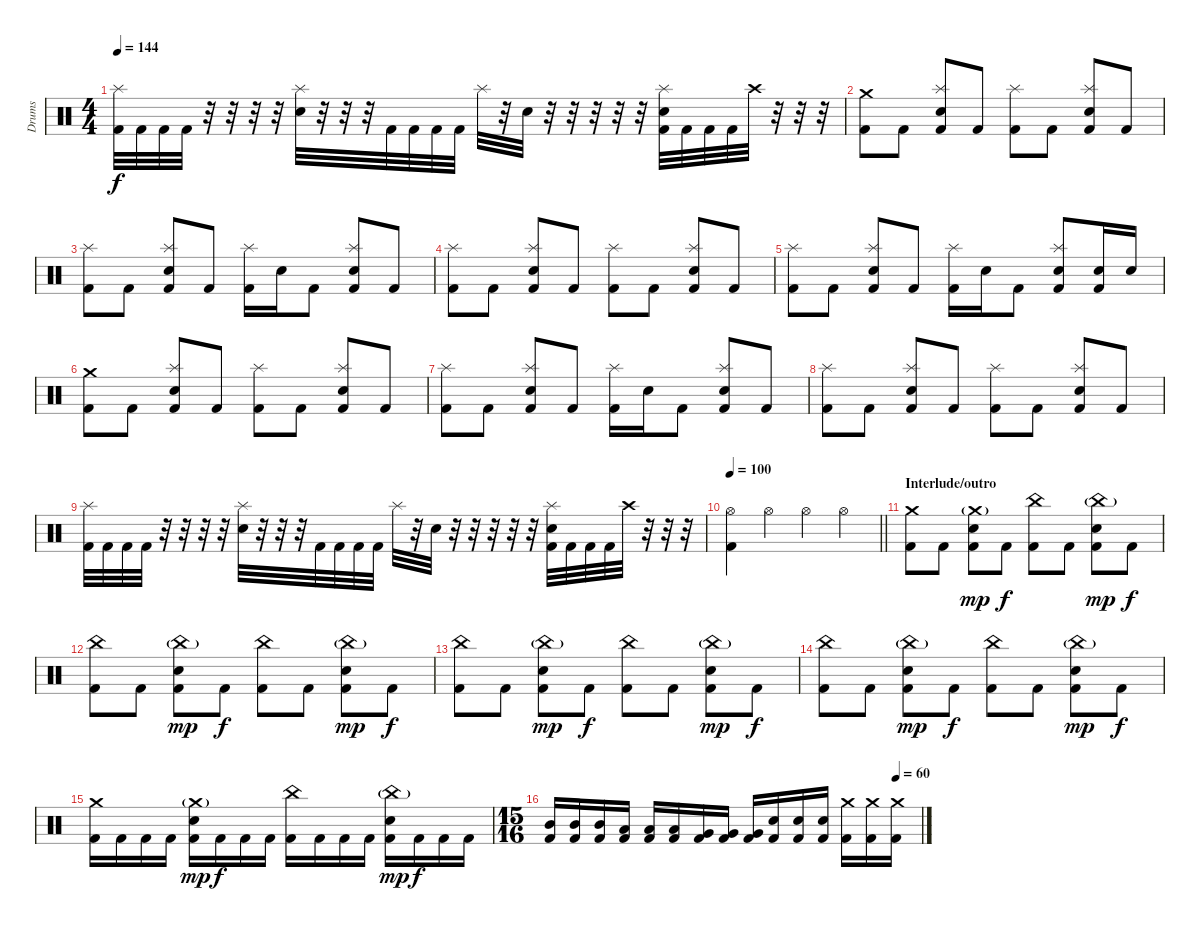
\track ("Drums" "Drums") {instrument percussion}
\staff {score}
\articulation defaults
\ts (4 4)
\tempo 144
\clef neutral
\ks c
("Kick (hit) 2" "Splash (hit)").32{dy f} "Kick (hit) 2".32 "Kick (hit) 2".32 "Kick (hit) 2".32 r.32 r.32 r.32 r.32 ("Snare (hit) 2" "Splash (hit)").32 r.32 r.32 r.32 "Kick (hit) 2".32 "Kick (hit) 2".32 "Kick (hit) 2".32 "Kick (hit) 2".32 "Splash (hit)".32 r.32 "Snare (hit) 2".32 r.32 r.32 r.32 r.32 r.32 ("Kick (hit) 2" "Snare (hit) 2" "Splash (hit)").32 "Kick (hit) 2".32 "Kick (hit) 2".32 "Kick (hit) 2".32 "Crash high (hit)".32 r.32 r.32 r.32 |
("Kick (hit) 2" "Crash medium (hit)").8 "Kick (hit) 2".8 ("Kick (hit) 2" "Snare (hit) 2" "Splash (hit)").8 "Kick (hit) 2".8 ("Kick (hit) 2" "Splash (hit)").8 "Kick (hit) 2".8 ("Kick (hit) 2" "Snare (hit) 2" "Splash (hit)").8 "Kick (hit) 2".8 |
("Kick (hit) 2" "Splash (hit)").8 "Kick (hit) 2".8 ("Kick (hit) 2" "Snare (hit) 2" "Splash (hit)").8 "Kick (hit) 2".8 ("Kick (hit) 2" "Splash (hit)").16 "Snare (hit) 2".16 "Kick (hit) 2".8 ("Kick (hit) 2" "Snare (hit) 2" "Splash (hit)").8 "Kick (hit) 2".8 |
("Kick (hit) 2" "Splash (hit)").8 "Kick (hit) 2".8 ("Kick (hit) 2" "Snare (hit) 2" "Splash (hit)").8 "Kick (hit) 2".8 ("Kick (hit) 2" "Splash (hit)").8 "Kick (hit) 2".8 ("Kick (hit) 2" "Snare (hit) 2" "Splash (hit)").8 "Kick (hit) 2".8 |
("Kick (hit) 2" "Splash (hit)").8 "Kick (hit) 2".8 ("Kick (hit) 2" "Snare (hit) 2" "Splash (hit)").8 "Kick (hit) 2".8 ("Kick (hit) 2" "Splash (hit)").16 "Snare (hit) 2".16 "Kick (hit) 2".8 ("Kick (hit) 2" "Snare (hit) 2" "Splash (hit)").8 ("Kick (hit) 2" "Snare (hit) 2").16 "Snare (hit) 2".16 |
("Kick (hit) 2" "Crash medium (hit)").8 "Kick (hit) 2".8 ("Kick (hit) 2" "Snare (hit) 2" "Splash (hit)").8 "Kick (hit) 2".8 ("Kick (hit) 2" "Splash (hit)").8 "Kick (hit) 2".8 ("Kick (hit) 2" "Snare (hit) 2" "Splash (hit)").8 "Kick (hit) 2".8 |
("Kick (hit) 2" "Splash (hit)").8 "Kick (hit) 2".8 ("Kick (hit) 2" "Snare (hit) 2" "Splash (hit)").8 "Kick (hit) 2".8 ("Kick (hit) 2" "Splash (hit)").16 "Snare (hit) 2".16 "Kick (hit) 2".8 ("Kick (hit) 2" "Snare (hit) 2" "Splash (hit)").8 "Kick (hit) 2".8 |
("Kick (hit) 2" "Splash (hit)").8 "Kick (hit) 2".8 ("Kick (hit) 2" "Snare (hit) 2" "Splash (hit)").8 "Kick (hit) 2".8 ("Kick (hit) 2" "Splash (hit)").8 "Kick (hit) 2".8 ("Kick (hit) 2" "Snare (hit) 2" "Splash (hit)").8 "Kick (hit) 2".8 |
("Kick (hit) 2" "Splash (hit)").32 "Kick (hit) 2".32 "Kick (hit) 2".32 "Kick (hit) 2".32 r.32 r.32 r.32 r.32 ("Snare (hit) 2" "Splash (hit)").32 r.32 r.32 r.32 "Kick (hit) 2".32 "Kick (hit) 2".32 "Kick (hit) 2".32 "Kick (hit) 2".32 "Splash (hit)".32 r.32 "Snare (hit) 2".32 r.32 r.32 r.32 r.32 r.32 ("Kick (hit) 2" "Snare (hit) 2" "Splash (hit)").32 "Kick (hit) 2".32 "Kick (hit) 2".32 "Kick (hit) 2".32 "Crash high (hit)".32 r.32 r.32 r.32 |
\tempo 100
\barLineRight lightlight
("Kick (hit) 2" "Hi-Hat (open)").4 "Hi-Hat (open)".4 "Hi-Hat (open)".4 "Hi-Hat (open)".4 |
\section ("" "Interlude/outro")
("Kick (hit) 2" "Crash medium (hit)").8 "Kick (hit) 2".8 ("Kick (hit) 2" "Snare (hit) 2" "Crash medium (hit)"{g}).8{dy mp} "Kick (hit) 2".8{dy f} ("Kick (hit) 2" "China (hit)").8 "Kick (hit) 2".8 ("Kick (hit) 2" "Snare (hit) 2" "China (hit)"{g}).8{dy mp} "Kick (hit) 2".8{dy f} |
("Kick (hit) 2" "China (hit)").8 "Kick (hit) 2".8 ("Kick (hit) 2" "Snare (hit) 2" "China (hit)"{g}).8{dy mp} "Kick (hit) 2".8{dy f} ("Kick (hit) 2" "China (hit)").8 "Kick (hit) 2".8 ("Kick (hit) 2" "Snare (hit) 2" "China (hit)"{g}).8{dy mp} "Kick (hit) 2".8{dy f} |
("Kick (hit) 2" "China (hit)").8 "Kick (hit) 2".8 ("Kick (hit) 2" "Snare (hit) 2" "China (hit)"{g}).8{dy mp} "Kick (hit) 2".8{dy f} ("Kick (hit) 2" "China (hit)").8 "Kick (hit) 2".8 ("Kick (hit) 2" "Snare (hit) 2" "China (hit)"{g}).8{dy mp} "Kick (hit) 2".8{dy f} |
("Kick (hit) 2" "China (hit)").8 "Kick (hit) 2".8 ("Kick (hit) 2" "Snare (hit) 2" "China (hit)"{g}).8{dy mp} "Kick (hit) 2".8{dy f} ("Kick (hit) 2" "China (hit)").8 "Kick (hit) 2".8 ("Kick (hit) 2" "Snare (hit) 2" "China (hit)"{g}).8{dy mp} "Kick (hit) 2".8{dy f} |
("Kick (hit) 2" "Crash medium (hit)").16 "Kick (hit) 2".16 "Kick (hit) 2".16 "Kick (hit) 2".16 ("Kick (hit) 2" "Snare (hit) 2" "Crash medium (hit)"{g}).16{dy mp} "Kick (hit) 2".16{dy f} "Kick (hit) 2".16 "Kick (hit) 2".16 ("Kick (hit) 2" "China (hit)").16 "Kick (hit) 2".16 "Kick (hit) 2".16 "Kick (hit) 2".16 ("Kick (hit) 2" "Snare (hit) 2" "China (hit)"{g}).16{dy mp} "Kick (hit) 2".16{dy f} "Kick (hit) 2".16 "Kick (hit) 2".16 |
\ts (15 16)
\tempo (60 0.9333333333333333)
("Kick (hit) 2" "Mid Tom (hit)").16 ("Kick (hit) 2" "Mid Tom (hit)").16 ("Kick (hit) 2" "Mid Tom (hit)").16 ("Kick (hit) 2" "Low Tom (hit)").16 ("Kick (hit) 2" "Low Tom (hit)").16 ("Kick (hit) 2" "Low Tom (hit)").16 ("Kick (hit) 2" "Very Low Tom (hit)").16 ("Kick (hit) 2" "Very Low Tom (hit)").16 ("Kick (hit) 2" "Very Low Tom (hit)").16 ("Kick (hit) 2" "Snare (hit) 2").16 ("Kick (hit) 2" "Snare (hit) 2").16 ("Kick (hit) 2" "Snare (hit) 2").16 ("Kick (hit) 2" "Crash medium (hit)").16 ("Kick (hit) 2" "Crash medium (hit)").16 ("Kick (hit) 2" "Crash medium (hit)").16
